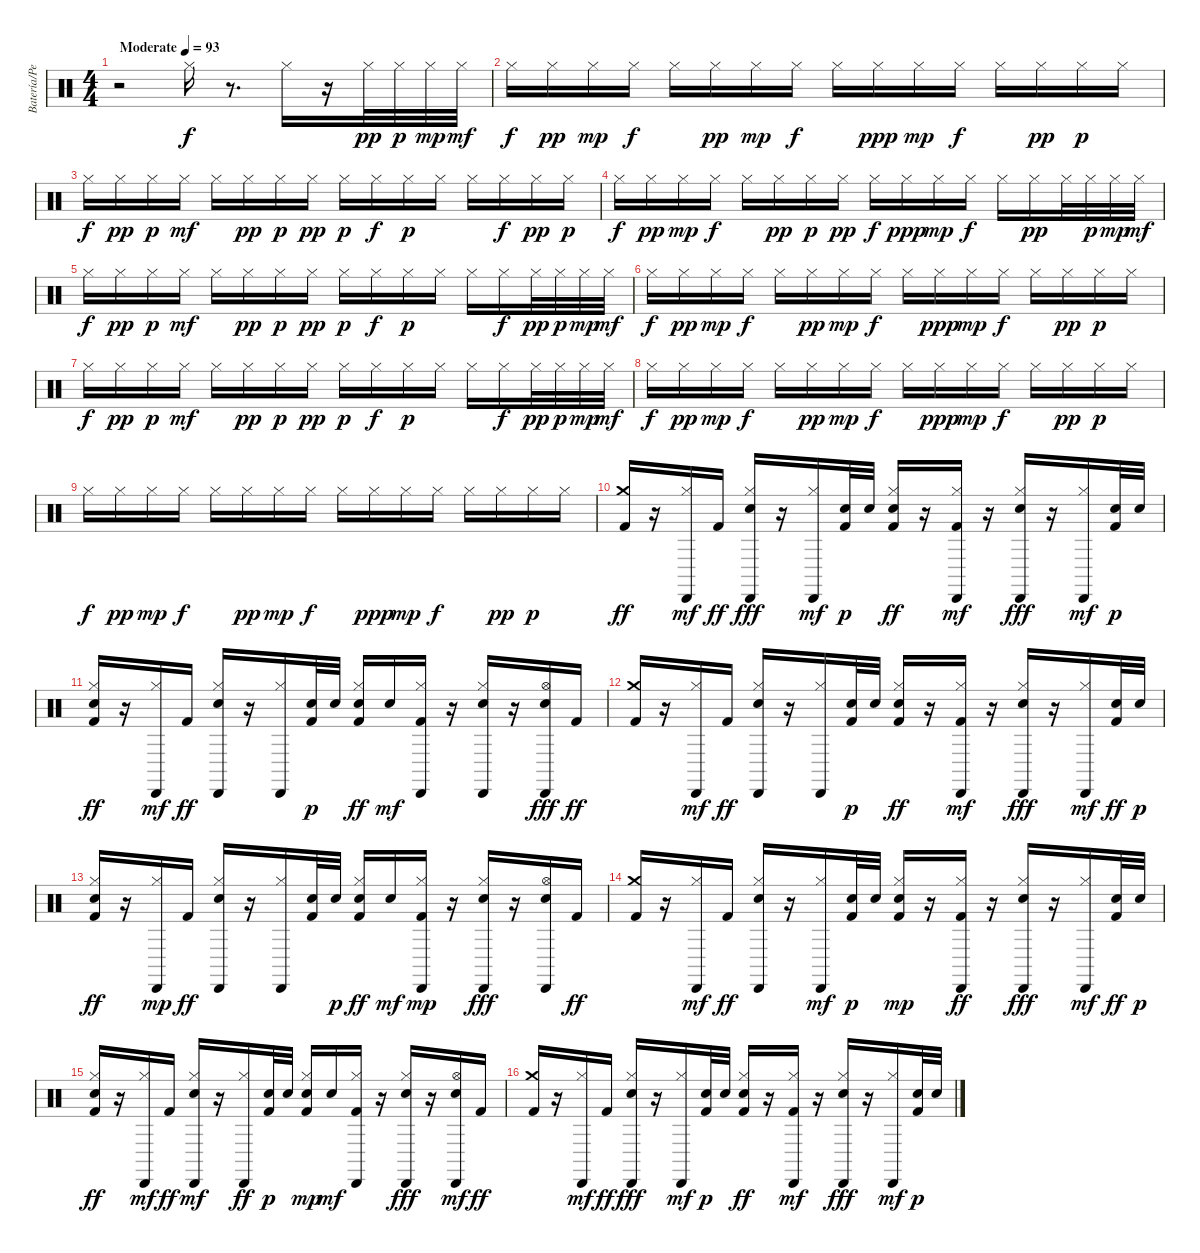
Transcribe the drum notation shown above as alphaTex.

\track ("Batería/Percusión" "Batería/Pe") {instrument percussion}
\staff {score}
\articulation defaults
\ts (4 4)
\tempo (93 "Moderate")
\clef neutral
\ks c
r.2{dy f} "Hi-Hat (closed)".16{volume 12 balance 8} r.8{d} "Hi-Hat (closed)".16 r.16 "Hi-Hat (closed)".32{dy pp} "Hi-Hat (closed)".32{dy p} "Hi-Hat (closed)".32{dy mp} "Hi-Hat (closed)".32{dy mf} |
"Hi-Hat (closed)".16{dy f} "Hi-Hat (closed)".16{dy pp} "Hi-Hat (closed)".16{dy mp} "Hi-Hat (closed)".16{dy f} "Hi-Hat (closed)".16 "Hi-Hat (closed)".16{dy pp} "Hi-Hat (closed)".16{dy mp} "Hi-Hat (closed)".16{dy f} "Hi-Hat (closed)".16 "Hi-Hat (closed)".16{dy ppp} "Hi-Hat (closed)".16{dy mp} "Hi-Hat (closed)".16{dy f} "Hi-Hat (closed)".16 "Hi-Hat (closed)".16{dy pp} "Hi-Hat (closed)".16{dy p} "Hi-Hat (closed)".16 |
"Hi-Hat (closed)".16{dy f} "Hi-Hat (closed)".16{dy pp} "Hi-Hat (closed)".16{dy p} "Hi-Hat (closed)".16{dy mf} "Hi-Hat (closed)".16 "Hi-Hat (closed)".16{dy pp} "Hi-Hat (closed)".16{dy p} "Hi-Hat (closed)".16{dy pp} "Hi-Hat (closed)".16{dy p} "Hi-Hat (closed)".16{dy f} "Hi-Hat (closed)".16{dy p} "Hi-Hat (closed)".16 "Hi-Hat (closed)".16 "Hi-Hat (closed)".16{dy f} "Hi-Hat (closed)".16{dy pp} "Hi-Hat (closed)".16{dy p} |
"Hi-Hat (closed)".16{dy f} "Hi-Hat (closed)".16{dy pp} "Hi-Hat (closed)".16{dy mp} "Hi-Hat (closed)".16{dy f} "Hi-Hat (closed)".16 "Hi-Hat (closed)".16{dy pp} "Hi-Hat (closed)".16{dy p} "Hi-Hat (closed)".16{dy pp} "Hi-Hat (closed)".16{dy f} "Hi-Hat (closed)".16{dy ppp} "Hi-Hat (closed)".16{dy mp} "Hi-Hat (closed)".16{dy f} "Hi-Hat (closed)".16 "Hi-Hat (closed)".16{dy pp} "Hi-Hat (closed)".32 "Hi-Hat (closed)".32{dy p} "Hi-Hat (closed)".32{dy mp} "Hi-Hat (closed)".32{dy mf} |
"Hi-Hat (closed)".16{dy f} "Hi-Hat (closed)".16{dy pp} "Hi-Hat (closed)".16{dy p} "Hi-Hat (closed)".16{dy mf} "Hi-Hat (closed)".16 "Hi-Hat (closed)".16{dy pp} "Hi-Hat (closed)".16{dy p} "Hi-Hat (closed)".16{dy pp} "Hi-Hat (closed)".16{dy p} "Hi-Hat (closed)".16{dy f} "Hi-Hat (closed)".16{dy p} "Hi-Hat (closed)".16 "Hi-Hat (closed)".16 "Hi-Hat (closed)".16{dy f} "Hi-Hat (closed)".32{dy pp} "Hi-Hat (closed)".32{dy p} "Hi-Hat (closed)".32{dy mp} "Hi-Hat (closed)".32{dy mf} |
"Hi-Hat (closed)".16{dy f} "Hi-Hat (closed)".16{dy pp} "Hi-Hat (closed)".16{dy mp} "Hi-Hat (closed)".16{dy f} "Hi-Hat (closed)".16 "Hi-Hat (closed)".16{dy pp} "Hi-Hat (closed)".16{dy mp} "Hi-Hat (closed)".16{dy f} "Hi-Hat (closed)".16 "Hi-Hat (closed)".16{dy ppp} "Hi-Hat (closed)".16{dy mp} "Hi-Hat (closed)".16{dy f} "Hi-Hat (closed)".16 "Hi-Hat (closed)".16{dy pp} "Hi-Hat (closed)".16{dy p} "Hi-Hat (closed)".16 |
"Hi-Hat (closed)".16{dy f} "Hi-Hat (closed)".16{dy pp} "Hi-Hat (closed)".16{dy p} "Hi-Hat (closed)".16{dy mf} "Hi-Hat (closed)".16 "Hi-Hat (closed)".16{dy pp} "Hi-Hat (closed)".16{dy p} "Hi-Hat (closed)".16{dy pp} "Hi-Hat (closed)".16{dy p} "Hi-Hat (closed)".16{dy f} "Hi-Hat (closed)".16{dy p} "Hi-Hat (closed)".16 "Hi-Hat (closed)".16 "Hi-Hat (closed)".16{dy f} "Hi-Hat (closed)".32{dy pp} "Hi-Hat (closed)".32{dy p} "Hi-Hat (closed)".32{dy mp} "Hi-Hat (closed)".32{dy mf} |
"Hi-Hat (closed)".16{dy f} "Hi-Hat (closed)".16{dy pp} "Hi-Hat (closed)".16{dy mp} "Hi-Hat (closed)".16{dy f} "Hi-Hat (closed)".16 "Hi-Hat (closed)".16{dy pp} "Hi-Hat (closed)".16{dy mp} "Hi-Hat (closed)".16{dy f} "Hi-Hat (closed)".16 "Hi-Hat (closed)".16{dy ppp} "Hi-Hat (closed)".16{dy mp} "Hi-Hat (closed)".16{dy f} "Hi-Hat (closed)".16 "Hi-Hat (closed)".16{dy pp} "Hi-Hat (closed)".16{dy p} "Hi-Hat (closed)".16 |
"Hi-Hat (closed)".16{dy f} "Hi-Hat (closed)".16{dy pp} "Hi-Hat (closed)".16{dy mp} "Hi-Hat (closed)".16{dy f} "Hi-Hat (closed)".16 "Hi-Hat (closed)".16{dy pp} "Hi-Hat (closed)".16{dy mp} "Hi-Hat (closed)".16{dy f} "Hi-Hat (closed)".16 "Hi-Hat (closed)".16{dy ppp} "Hi-Hat (closed)".16{dy mp} "Hi-Hat (closed)".16{dy f} "Hi-Hat (closed)".16 "Hi-Hat (closed)".16{dy pp} "Hi-Hat (closed)".16{dy p} "Hi-Hat (closed)".16 |
("Crash medium (hit)" "Kick (hit) 2").16{dy ff} r.16 ("Hi-Hat (closed)" "Cabasa (hit)").16{dy mf} "Kick (hit) 2".16{dy ff} ("Hi-Hat (closed)" "Cabasa (hit)" "Electric Snare (hit)").16{dy fff} r.16 ("Hi-Hat (closed)" "Cabasa (hit)").16{dy mf} ("Kick (hit) 2" "Electric Snare (hit)").32{dy p} "Electric Snare (hit)".32 ("Kick (hit) 2" "Electric Snare (hit)" "Hi-Hat (closed)").16{dy ff} r.16 ("Kick (hit) 2" "Hi-Hat (closed)" "Cabasa (hit)").16{dy mf} r.16 ("Cabasa (hit)" "Hi-Hat (closed)" "Electric Snare (hit)").16{dy fff} r.16 ("Hi-Hat (closed)" "Cabasa (hit)").16{dy mf} ("Kick (hit) 2" "Electric Snare (hit)").32{dy p} "Electric Snare (hit)".32 |
("Electric Snare (hit)" "Hi-Hat (closed)" "Kick (hit) 2").16{dy ff} r.16 ("Hi-Hat (closed)" "Cabasa (hit)").16{dy mf} "Kick (hit) 2".16{dy ff} ("Cabasa (hit)" "Electric Snare (hit)" "Hi-Hat (closed)").16 r.16 ("Cabasa (hit)" "Hi-Hat (closed)").16 ("Kick (hit) 2" "Electric Snare (hit)").32{dy p} "Electric Snare (hit)".32 ("Hi-Hat (closed)" "Electric Snare (hit)" "Kick (hit) 2").16{dy ff} "Electric Snare (hit)".16{dy mf} ("Kick (hit) 2" "Hi-Hat (closed)" "Cabasa (hit)").16 r.16 ("Electric Snare (hit)" "Hi-Hat (closed)" "Cabasa (hit)").16 r.16 ("Cabasa (hit)" "Hi-Hat (open)" "Electric Snare (hit)").16{dy fff} "Kick (hit) 2".16{dy ff} |
("Kick (hit) 2" "Crash medium (hit)").16 r.16 ("Hi-Hat (closed)" "Cabasa (hit)").16{dy mf} "Kick (hit) 2".16{dy ff} ("Cabasa (hit)" "Electric Snare (hit)" "Hi-Hat (closed)").16 r.16 ("Cabasa (hit)" "Hi-Hat (closed)").16 ("Kick (hit) 2" "Electric Snare (hit)").32{dy p} "Electric Snare (hit)".32 ("Electric Snare (hit)" "Kick (hit) 2" "Hi-Hat (closed)").16{dy ff} r.16 ("Hi-Hat (closed)" "Kick (hit) 2" "Cabasa (hit)").16{dy mf} r.16 ("Cabasa (hit)" "Electric Snare (hit)" "Hi-Hat (closed)").16{dy fff} r.16 ("Hi-Hat (closed)" "Cabasa (hit)").16{dy mf} ("Electric Snare (hit)" "Kick (hit) 2").32{dy ff} "Electric Snare (hit)".32{dy p} |
("Kick (hit) 2" "Electric Snare (hit)" "Hi-Hat (closed)").16{dy ff} r.16 ("Cabasa (hit)" "Hi-Hat (closed)").16{dy mp} "Kick (hit) 2".16{dy ff} ("Electric Snare (hit)" "Cabasa (hit)" "Hi-Hat (closed)").16 r.16 ("Cabasa (hit)" "Hi-Hat (closed)").16 ("Electric Snare (hit)" "Kick (hit) 2").32 "Electric Snare (hit)".32{dy p} ("Electric Snare (hit)" "Kick (hit) 2" "Hi-Hat (closed)").16{dy ff} "Electric Snare (hit)".16{dy mf} ("Hi-Hat (closed)" "Kick (hit) 2" "Cabasa (hit)").16{dy mp} r.16 ("Cabasa (hit)" "Electric Snare (hit)" "Hi-Hat (closed)").16{dy fff} r.16 ("Hi-Hat (open)" "Cabasa (hit)" "Electric Snare (hit)").16 "Kick (hit) 2".16{dy ff} |
("Crash medium (hit)" "Kick (hit) 2").16 r.16 ("Hi-Hat (closed)" "Cabasa (hit)").16{dy mf} "Kick (hit) 2".16{dy ff} ("Cabasa (hit)" "Electric Snare (hit)" "Hi-Hat (closed)").16 r.16 ("Hi-Hat (closed)" "Cabasa (hit)").16{dy mf} ("Kick (hit) 2" "Electric Snare (hit)").32{dy p} "Electric Snare (hit)".32 ("Hi-Hat (closed)" "Kick (hit) 2" "Electric Snare (hit)").16{dy mp} r.16 ("Cabasa (hit)" "Kick (hit) 2" "Hi-Hat (closed)").16{dy ff} r.16 ("Hi-Hat (closed)" "Cabasa (hit)" "Electric Snare (hit)").16{dy fff} r.16 ("Cabasa (hit)" "Hi-Hat (closed)").16{dy mf} ("Electric Snare (hit)" "Kick (hit) 2").32{dy ff} "Electric Snare (hit)".32{dy p} |
("Hi-Hat (closed)" "Electric Snare (hit)" "Kick (hit) 2").16{dy ff} r.16 ("Cabasa (hit)" "Hi-Hat (closed)").16{dy mf} "Kick (hit) 2".16{dy ff} ("Hi-Hat (closed)" "Electric Snare (hit)" "Cabasa (hit)").16{dy mf} r.16 ("Cabasa (hit)" "Hi-Hat (closed)").16{dy ff} ("Kick (hit) 2" "Electric Snare (hit)").32{dy p} "Electric Snare (hit)".32 ("Hi-Hat (closed)" "Kick (hit) 2" "Electric Snare (hit)").16{dy mp} "Electric Snare (hit)".16{dy mf} ("Kick (hit) 2" "Cabasa (hit)" "Hi-Hat (closed)").16 r.16 ("Hi-Hat (closed)" "Cabasa (hit)" "Electric Snare (hit)").16{dy fff} r.16 ("Electric Snare (hit)" "Cabasa (hit)" "Hi-Hat (open)").16{dy mf} "Kick (hit) 2".16{dy ff} |
("Kick (hit) 2" "Crash medium (hit)").16 r.16 ("Cabasa (hit)" "Hi-Hat (closed)").16{dy mf} "Kick (hit) 2".16{dy ff} ("Cabasa (hit)" "Hi-Hat (closed)" "Electric Snare (hit)").16{dy fff} r.16 ("Hi-Hat (closed)" "Cabasa (hit)").16{dy mf} ("Kick (hit) 2" "Electric Snare (hit)").32{dy p} "Electric Snare (hit)".32 ("Electric Snare (hit)" "Kick (hit) 2" "Hi-Hat (closed)").16{dy ff} r.16 ("Kick (hit) 2" "Hi-Hat (closed)" "Cabasa (hit)").16{dy mf} r.16 ("Cabasa (hit)" "Electric Snare (hit)" "Hi-Hat (closed)").16{dy fff} r.16 ("Cabasa (hit)" "Hi-Hat (closed)").16{dy mf} ("Kick (hit) 2" "Electric Snare (hit)").32{dy p} "Electric Snare (hit)".32
